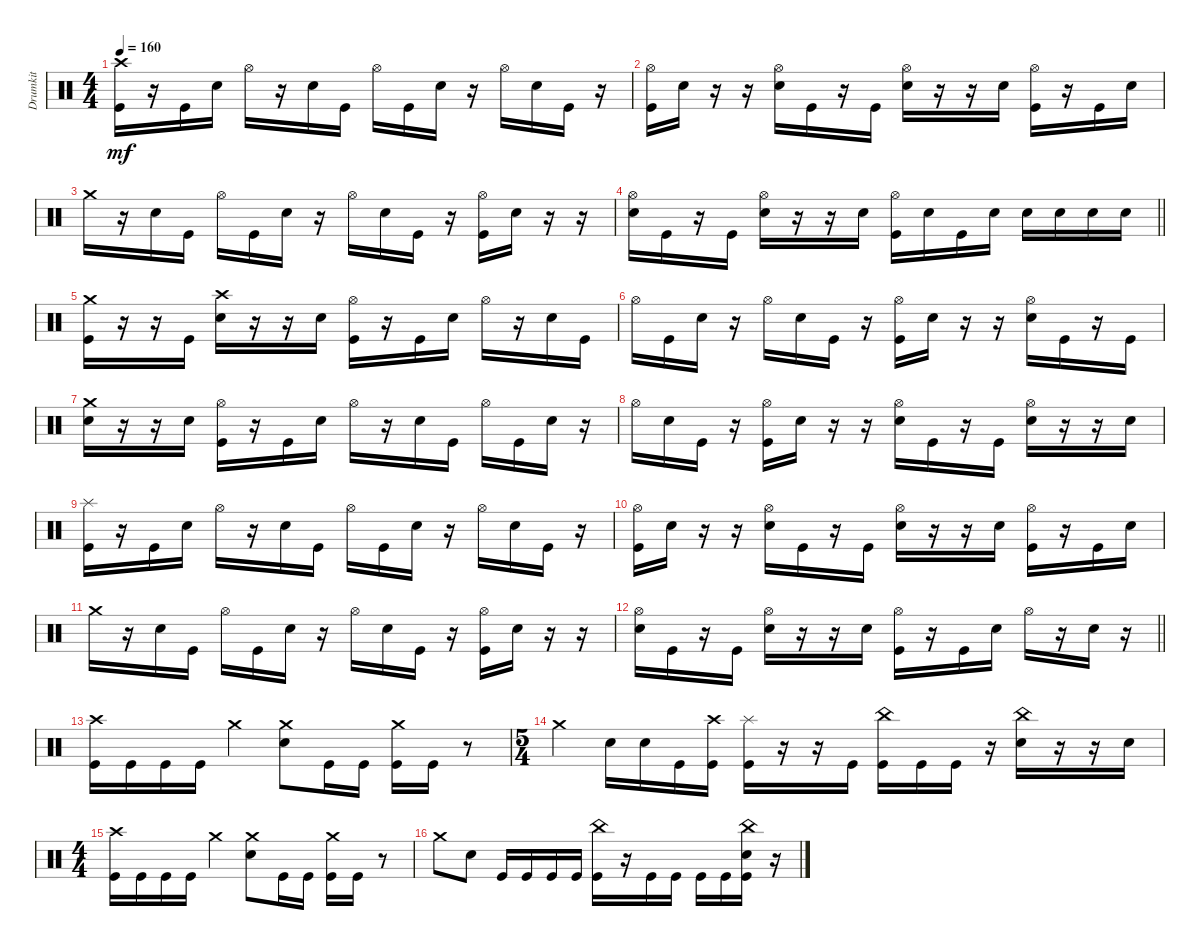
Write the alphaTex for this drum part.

\track ("Drumkit" "Drumkit") {instrument percussion}
\staff {score}
\articulation defaults
\ts (4 4)
\tempo 160
\clef neutral
\ks c
("Kick (hit)" "Crash high (hit)").16{dy mf} r.16 "Kick (hit)".16 "Snare (hit) 2".16 "Hi-Hat (open)".16 r.16 "Snare (hit) 2".16 "Kick (hit)".16 "Hi-Hat (open)".16 "Kick (hit)".16 "Snare (hit) 2".16 r.16 "Hi-Hat (open)".16 "Snare (hit) 2".16 "Kick (hit)".16 r.16 |
("Kick (hit)" "Hi-Hat (open)").16 "Snare (hit) 2".16 r.16 r.16 ("Snare (hit) 2" "Hi-Hat (open)").16 "Kick (hit)".16 r.16 "Kick (hit)".16 ("Snare (hit) 2" "Hi-Hat (open)").16 r.16 r.16 "Snare (hit) 2".16 ("Kick (hit)" "Hi-Hat (open)").16 r.16 "Kick (hit)".16 "Snare (hit) 2".16 |
"Crash medium (hit)".16 r.16 "Snare (hit) 2".16 "Kick (hit)".16 "Hi-Hat (open)".16 "Kick (hit)".16 "Snare (hit) 2".16 r.16 "Hi-Hat (open)".16 "Snare (hit) 2".16 "Kick (hit)".16 r.16 ("Kick (hit)" "Hi-Hat (open)").16 "Snare (hit) 2".16 r.16 r.16 |
\barLineRight lightlight
("Snare (hit) 2" "Hi-Hat (open)").16 "Kick (hit)".16 r.16 "Kick (hit)".16 ("Snare (hit) 2" "Hi-Hat (open)").16 r.16 r.16 "Snare (hit) 2".16 ("Kick (hit)" "Hi-Hat (open)").16 "Snare (hit) 2".16 "Kick (hit)".16 "Snare (hit) 2".16 "Snare (hit) 2".16 "Snare (hit) 2".16 "Snare (hit) 2".16 "Snare (hit) 2".16 |
("Kick (hit)" "Crash medium (hit)").16 r.16 r.16 "Kick (hit)".16 ("Snare (hit) 2" "Crash high (hit)").16 r.16 r.16 "Snare (hit) 2".16 ("Hi-Hat (open)" "Kick (hit)").16 r.16 "Kick (hit)".16 "Snare (hit) 2".16 "Hi-Hat (open)".16 r.16 "Snare (hit) 2".16 "Kick (hit)".16 |
"Hi-Hat (open)".16 "Kick (hit)".16 "Snare (hit) 2".16 r.16 "Hi-Hat (open)".16 "Snare (hit) 2".16 "Kick (hit)".16 r.16 ("Kick (hit)" "Hi-Hat (open)").16 "Snare (hit) 2".16 r.16 r.16 ("Snare (hit) 2" "Hi-Hat (open)").16 "Kick (hit)".16 r.16 "Kick (hit)".16 |
("Snare (hit) 2" "Crash medium (hit)").16 r.16 r.16 "Snare (hit) 2".16 ("Kick (hit)" "Hi-Hat (open)").16 r.16 "Kick (hit)".16 "Snare (hit) 2".16 "Hi-Hat (open)".16 r.16 "Snare (hit) 2".16 "Kick (hit)".16 "Hi-Hat (open)".16 "Kick (hit)".16 "Snare (hit) 2".16 r.16 |
"Hi-Hat (open)".16 "Snare (hit) 2".16 "Kick (hit)".16 r.16 ("Kick (hit)" "Hi-Hat (open)").16 "Snare (hit) 2".16 r.16 r.16 ("Snare (hit) 2" "Hi-Hat (open)").16 "Kick (hit)".16 r.16 "Kick (hit)".16 ("Snare (hit) 2" "Hi-Hat (open)").16 r.16 r.16 "Snare (hit) 2".16 |
("Kick (hit)" "Splash (hit)").16 r.16 "Kick (hit)".16 "Snare (hit) 2".16 "Hi-Hat (open)".16 r.16 "Snare (hit) 2".16 "Kick (hit)".16 "Hi-Hat (open)".16 "Kick (hit)".16 "Snare (hit) 2".16 r.16 "Hi-Hat (open)".16 "Snare (hit) 2".16 "Kick (hit)".16 r.16 |
("Kick (hit)" "Hi-Hat (open)").16 "Snare (hit) 2".16 r.16 r.16 ("Snare (hit) 2" "Hi-Hat (open)").16 "Kick (hit)".16 r.16 "Kick (hit)".16 ("Snare (hit) 2" "Hi-Hat (open)").16 r.16 r.16 "Snare (hit) 2".16 ("Kick (hit)" "Hi-Hat (open)").16 r.16 "Kick (hit)".16 "Snare (hit) 2".16 |
"Crash medium (hit)".16 r.16 "Snare (hit) 2".16 "Kick (hit)".16 "Hi-Hat (open)".16 "Kick (hit)".16 "Snare (hit) 2".16 r.16 "Hi-Hat (open)".16 "Snare (hit) 2".16 "Kick (hit)".16 r.16 ("Kick (hit)" "Hi-Hat (open)").16 "Snare (hit) 2".16 r.16 r.16 |
\barLineRight lightlight
("Snare (hit) 2" "Hi-Hat (open)").16 "Kick (hit)".16 r.16 "Kick (hit)".16 ("Snare (hit) 2" "Hi-Hat (open)").16 r.16 r.16 "Snare (hit) 2".16 ("Kick (hit)" "Hi-Hat (open)").16 r.16 "Kick (hit)".16 "Snare (hit) 2".16 "Hi-Hat (open)".16 r.16 "Snare (hit) 2".16 r.16 |
("Kick (hit)" "Crash high (hit)").16 "Kick (hit)".16 "Kick (hit)".16 "Kick (hit)".16 "Crash medium (hit)".4 ("Crash medium (hit)" "Snare (hit) 2").8 "Kick (hit)".16 "Kick (hit)".16 ("Kick (hit)" "Crash medium (hit)").16 "Kick (hit)".16 r.8 |
\ts (5 4)
"Crash medium (hit)".4 "Snare (hit) 2".16 "Snare (hit) 2".16 "Kick (hit)".16 ("Kick (hit)" "Crash high (hit)").16 ("Kick (hit)" "Splash (hit)").16 r.16 r.16 "Kick (hit)".16 ("Kick (hit)" "China (hit)").16 "Kick (hit)".16 "Kick (hit)".16 r.16 ("Snare (hit) 2" "China (hit)").16 r.16 r.16 "Snare (hit) 2".16 |
\ts (4 4)
("Kick (hit)" "Crash high (hit)").16 "Kick (hit)".16 "Kick (hit)".16 "Kick (hit)".16 "Crash medium (hit)".4 ("Crash medium (hit)" "Snare (hit) 2").8 "Kick (hit)".16 "Kick (hit)".16 ("Kick (hit)" "Crash medium (hit)").16 "Kick (hit)".16 r.8 |
"Crash medium (hit)".8 "Snare (hit) 2".8 "Kick (hit)".16 "Kick (hit)".16 "Kick (hit)".16 "Kick (hit)".16 ("Kick (hit)" "China (hit)").16 r.16 "Kick (hit)".16 "Kick (hit)".16 "Kick (hit)".16 "Kick (hit)".16 ("Kick (hit)" "China (hit)" "Snare (hit) 2").16 r.16
